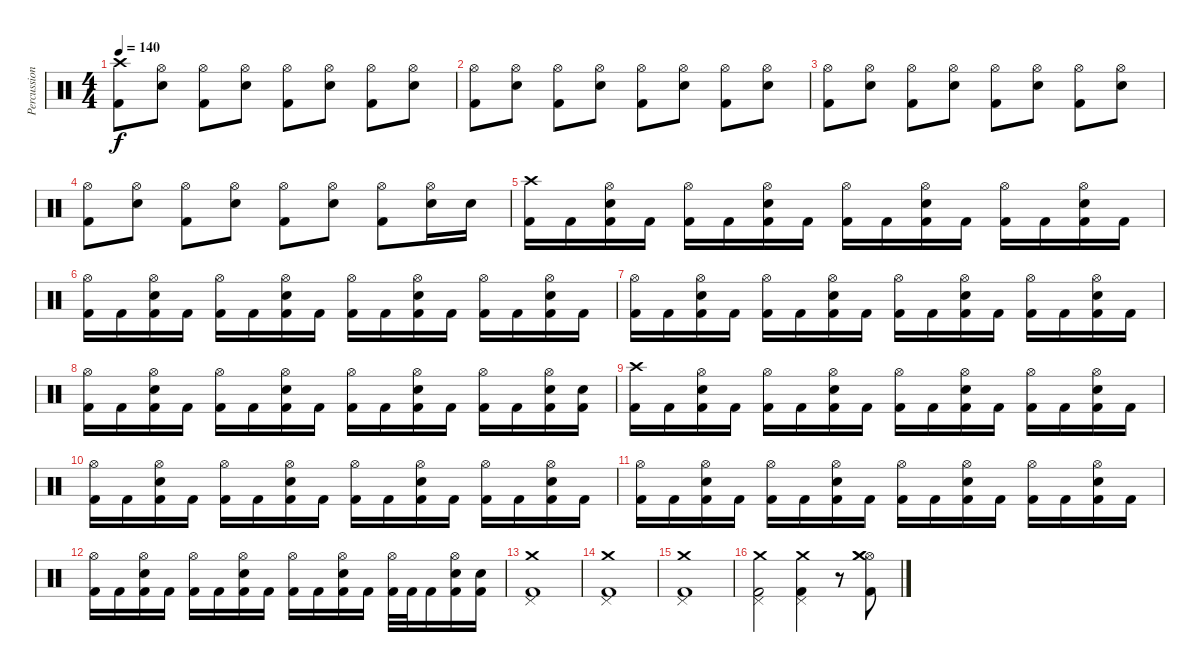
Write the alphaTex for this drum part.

\track ("Percussions" "Percussion") {instrument percussion}
\staff {score}
\articulation defaults
\ts (4 4)
\tempo 140
\clef neutral
\ks c
("Crash high (hit)" "Kick (hit) 2").8{dy f} ("Hi-Hat (open)" "Electric Snare (hit)").8 ("Hi-Hat (open)" "Kick (hit) 2").8 ("Hi-Hat (open)" "Electric Snare (hit)").8 ("Hi-Hat (open)" "Kick (hit) 2").8 ("Hi-Hat (open)" "Electric Snare (hit)").8 ("Hi-Hat (open)" "Kick (hit) 2").8 ("Hi-Hat (open)" "Electric Snare (hit)").8 |
("Hi-Hat (open)" "Kick (hit) 2").8 ("Hi-Hat (open)" "Electric Snare (hit)").8 ("Hi-Hat (open)" "Kick (hit) 2").8 ("Hi-Hat (open)" "Electric Snare (hit)").8 ("Hi-Hat (open)" "Kick (hit) 2").8 ("Hi-Hat (open)" "Electric Snare (hit)").8 ("Hi-Hat (open)" "Kick (hit) 2").8 ("Hi-Hat (open)" "Electric Snare (hit)").8 |
("Hi-Hat (open)" "Kick (hit) 2").8 ("Hi-Hat (open)" "Electric Snare (hit)").8 ("Hi-Hat (open)" "Kick (hit) 2").8 ("Hi-Hat (open)" "Electric Snare (hit)").8 ("Hi-Hat (open)" "Kick (hit) 2").8 ("Hi-Hat (open)" "Electric Snare (hit)").8 ("Hi-Hat (open)" "Kick (hit) 2").8 ("Hi-Hat (open)" "Electric Snare (hit)").8 |
("Hi-Hat (open)" "Kick (hit) 2").8 ("Hi-Hat (open)" "Electric Snare (hit)").8 ("Hi-Hat (open)" "Kick (hit) 2").8 ("Hi-Hat (open)" "Electric Snare (hit)").8 ("Hi-Hat (open)" "Kick (hit) 2").8 ("Hi-Hat (open)" "Electric Snare (hit)").8 ("Hi-Hat (open)" "Kick (hit) 2").8 ("Hi-Hat (open)" "Electric Snare (hit)").16 "Electric Snare (hit)".16 |
("Crash high (hit)" "Kick (hit) 2").16 "Kick (hit) 2".16 ("Hi-Hat (open)" "Electric Snare (hit)" "Kick (hit) 2").16 "Kick (hit) 2".16 ("Hi-Hat (open)" "Kick (hit) 2").16 "Kick (hit) 2".16 ("Hi-Hat (open)" "Electric Snare (hit)" "Kick (hit) 2").16 "Kick (hit) 2".16 ("Hi-Hat (open)" "Kick (hit) 2").16 "Kick (hit) 2".16 ("Hi-Hat (open)" "Electric Snare (hit)" "Kick (hit) 2").16 "Kick (hit) 2".16 ("Hi-Hat (open)" "Kick (hit) 2").16 "Kick (hit) 2".16 ("Hi-Hat (open)" "Electric Snare (hit)" "Kick (hit) 2").16 "Kick (hit) 2".16 |
("Hi-Hat (open)" "Kick (hit) 2").16 "Kick (hit) 2".16 ("Hi-Hat (open)" "Electric Snare (hit)" "Kick (hit) 2").16 "Kick (hit) 2".16 ("Hi-Hat (open)" "Kick (hit) 2").16 "Kick (hit) 2".16 ("Hi-Hat (open)" "Electric Snare (hit)" "Kick (hit) 2").16 "Kick (hit) 2".16 ("Hi-Hat (open)" "Kick (hit) 2").16 "Kick (hit) 2".16 ("Hi-Hat (open)" "Electric Snare (hit)" "Kick (hit) 2").16 "Kick (hit) 2".16 ("Hi-Hat (open)" "Kick (hit) 2").16 "Kick (hit) 2".16 ("Hi-Hat (open)" "Electric Snare (hit)" "Kick (hit) 2").16 "Kick (hit) 2".16 |
("Hi-Hat (open)" "Kick (hit) 2").16 "Kick (hit) 2".16 ("Hi-Hat (open)" "Electric Snare (hit)" "Kick (hit) 2").16 "Kick (hit) 2".16 ("Hi-Hat (open)" "Kick (hit) 2").16 "Kick (hit) 2".16 ("Hi-Hat (open)" "Electric Snare (hit)" "Kick (hit) 2").16 "Kick (hit) 2".16 ("Hi-Hat (open)" "Kick (hit) 2").16 "Kick (hit) 2".16 ("Hi-Hat (open)" "Electric Snare (hit)" "Kick (hit) 2").16 "Kick (hit) 2".16 ("Hi-Hat (open)" "Kick (hit) 2").16 "Kick (hit) 2".16 ("Hi-Hat (open)" "Electric Snare (hit)" "Kick (hit) 2").16 "Kick (hit) 2".16 |
("Hi-Hat (open)" "Kick (hit) 2").16 "Kick (hit) 2".16 ("Hi-Hat (open)" "Electric Snare (hit)" "Kick (hit) 2").16 "Kick (hit) 2".16 ("Hi-Hat (open)" "Kick (hit) 2").16 "Kick (hit) 2".16 ("Hi-Hat (open)" "Electric Snare (hit)" "Kick (hit) 2").16 "Kick (hit) 2".16 ("Hi-Hat (open)" "Kick (hit) 2").16 "Kick (hit) 2".16 ("Hi-Hat (open)" "Electric Snare (hit)" "Kick (hit) 2").16 "Kick (hit) 2".16 ("Hi-Hat (open)" "Kick (hit) 2").16 "Kick (hit) 2".16 ("Hi-Hat (open)" "Electric Snare (hit)" "Kick (hit) 2").16 ("Electric Snare (hit)" "Kick (hit) 2").16 |
("Crash high (hit)" "Kick (hit) 2").16 "Kick (hit) 2".16 ("Hi-Hat (open)" "Electric Snare (hit)" "Kick (hit) 2").16 "Kick (hit) 2".16 ("Hi-Hat (open)" "Kick (hit) 2").16 "Kick (hit) 2".16 ("Hi-Hat (open)" "Electric Snare (hit)" "Kick (hit) 2").16 "Kick (hit) 2".16 ("Hi-Hat (open)" "Kick (hit) 2").16 "Kick (hit) 2".16 ("Hi-Hat (open)" "Electric Snare (hit)" "Kick (hit) 2").16 "Kick (hit) 2".16 ("Hi-Hat (open)" "Kick (hit) 2").16 "Kick (hit) 2".16 ("Hi-Hat (open)" "Electric Snare (hit)" "Kick (hit) 2").16 "Kick (hit) 2".16 |
("Hi-Hat (open)" "Kick (hit) 2").16 "Kick (hit) 2".16 ("Hi-Hat (open)" "Electric Snare (hit)" "Kick (hit) 2").16 "Kick (hit) 2".16 ("Hi-Hat (open)" "Kick (hit) 2").16 "Kick (hit) 2".16 ("Hi-Hat (open)" "Electric Snare (hit)" "Kick (hit) 2").16 "Kick (hit) 2".16 ("Hi-Hat (open)" "Kick (hit) 2").16 "Kick (hit) 2".16 ("Hi-Hat (open)" "Electric Snare (hit)" "Kick (hit) 2").16 "Kick (hit) 2".16 ("Hi-Hat (open)" "Kick (hit) 2").16 "Kick (hit) 2".16 ("Hi-Hat (open)" "Electric Snare (hit)" "Kick (hit) 2").16 "Kick (hit) 2".16 |
("Hi-Hat (open)" "Kick (hit) 2").16 "Kick (hit) 2".16 ("Hi-Hat (open)" "Electric Snare (hit)" "Kick (hit) 2").16 "Kick (hit) 2".16 ("Hi-Hat (open)" "Kick (hit) 2").16 "Kick (hit) 2".16 ("Hi-Hat (open)" "Electric Snare (hit)" "Kick (hit) 2").16 "Kick (hit) 2".16 ("Hi-Hat (open)" "Kick (hit) 2").16 "Kick (hit) 2".16 ("Hi-Hat (open)" "Electric Snare (hit)" "Kick (hit) 2").16 "Kick (hit) 2".16 ("Hi-Hat (open)" "Kick (hit) 2").16 "Kick (hit) 2".16 ("Hi-Hat (open)" "Electric Snare (hit)" "Kick (hit) 2").16 "Kick (hit) 2".16 |
("Hi-Hat (open)" "Kick (hit) 2").16 "Kick (hit) 2".16 ("Hi-Hat (open)" "Electric Snare (hit)" "Kick (hit) 2").16 "Kick (hit) 2".16 ("Hi-Hat (open)" "Kick (hit) 2").16 "Kick (hit) 2".16 ("Hi-Hat (open)" "Electric Snare (hit)" "Kick (hit) 2").16 "Kick (hit) 2".16 ("Hi-Hat (open)" "Kick (hit) 2").16 "Kick (hit) 2".16 ("Hi-Hat (open)" "Electric Snare (hit)" "Kick (hit) 2").16 "Kick (hit) 2".16 ("Hi-Hat (open)" "Kick (hit) 2").32 "Kick (hit) 2".32 "Kick (hit) 2".16 ("Hi-Hat (open)" "Electric Snare (hit)" "Kick (hit) 2").16 ("Electric Snare (hit)" "Kick (hit) 2").16 |
("Pedal Hi-Hat (hit)" "Crash medium (hit)" "Kick (hit) 2").1 |
("Pedal Hi-Hat (hit)" "Crash medium (hit)" "Kick (hit) 2").1 |
("Pedal Hi-Hat (hit)" "Crash medium (hit)" "Kick (hit) 2").1 |
("Pedal Hi-Hat (hit)" "Crash medium (hit)" "Kick (hit) 2").2 ("Pedal Hi-Hat (hit)" "Crash medium (hit)" "Kick (hit) 2").4 r.8 ("Hi-Hat (open)" "Crash medium (hit)" "Crash medium (hit)" "Kick (hit) 2").8
